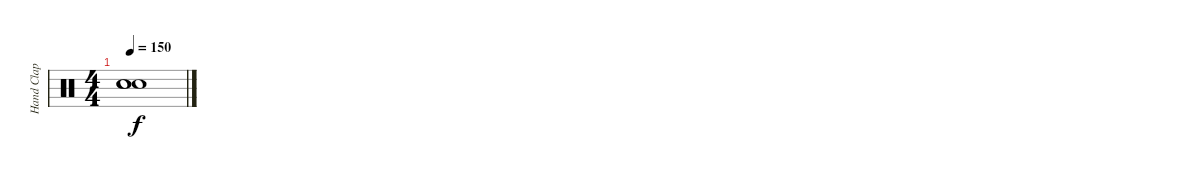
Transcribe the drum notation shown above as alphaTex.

\track ("Hand Clap" "Hand Clap") {instrument percussion}
\staff {score}
\articulation defaults
\ts (4 4)
\tempo 150
\clef neutral
\ks c
("Hand Clap (hit)" "Hand Clap (hit)" "Hand Clap (hit)").1{dy f}
